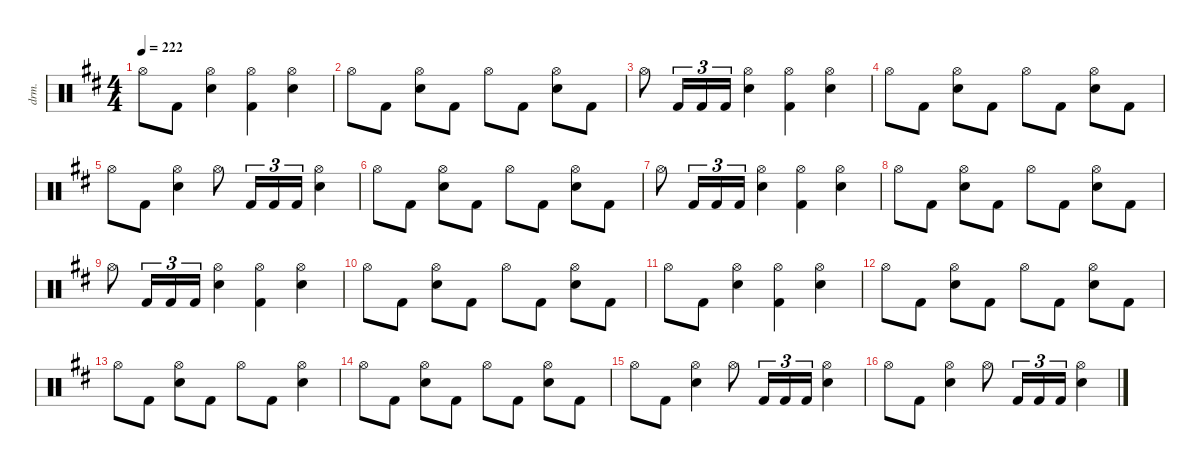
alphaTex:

\defaultSystemsLayout 4
\hideDynamics
\bracketExtendMode nobrackets
\otherSystemsTrackNameOrientation horizontal
\track ("Lars Ulrich" "drm.") {defaultSystemsLayout 4 instrument percussion}
\staff {score}
\articulation defaults
\ts (4 4)
\tempo 222
\clef neutral
\ks bminor "Hi-Hat (open)"{acc forcenatural}.8{dy f} "Kick (hit) 2"{acc forcenatural}.8
("Hi-Hat (open)"{acc forcenatural} "Snare (hit) 2"{acc forcenatural}).4 ("Hi-Hat (open)"{acc forcenatural} "Kick (hit) 2"{acc forcenatural}).4 ("Hi-Hat (open)"{acc forcenatural} "Snare (hit) 2"{acc forcenatural}).4 |
"Hi-Hat (open)"{acc forcenatural}.8 "Kick (hit) 2"{acc forcenatural}.8 ("Hi-Hat (open)"{acc forcenatural} "Snare (hit) 2"{acc forcenatural}).8 "Kick (hit) 2"{acc forcenatural}.8 "Hi-Hat (open)"{acc forcenatural}.8 "Kick (hit) 2"{acc forcenatural}.8 ("Hi-Hat (open)"{acc forcenatural} "Snare (hit) 2"{acc forcenatural}).8 "Kick (hit) 2"{acc forcenatural}.8 |
"Hi-Hat (open)"{acc forcenatural}.8 "Kick (hit) 2"{acc forcenatural}.16{tu (3 2)} "Kick (hit) 2"{acc forcenatural}.16{tu (3 2)} "Kick (hit) 2"{acc forcenatural}.16{tu (3 2)} ("Hi-Hat (open)"{acc forcenatural} "Snare (hit) 2"{acc forcenatural}).4 ("Hi-Hat (open)"{acc forcenatural} "Kick (hit) 2"{acc forcenatural}).4 ("Hi-Hat (open)"{acc forcenatural} "Snare (hit) 2"{acc forcenatural}).4 |
"Hi-Hat (open)"{acc forcenatural}.8 "Kick (hit) 2"{acc forcenatural}.8 ("Hi-Hat (open)"{acc forcenatural} "Snare (hit) 2"{acc forcenatural}).8 "Kick (hit) 2"{acc forcenatural}.8 "Hi-Hat (open)"{acc forcenatural}.8 "Kick (hit) 2"{acc forcenatural}.8 ("Hi-Hat (open)"{acc forcenatural} "Snare (hit) 2"{acc forcenatural}).8 "Kick (hit) 2"{acc forcenatural}.8 |
"Hi-Hat (open)"{acc forcenatural}.8 "Kick (hit) 2"{acc forcenatural}.8 ("Hi-Hat (open)"{acc forcenatural} "Snare (hit) 2"{acc forcenatural}).4 "Hi-Hat (open)"{acc forcenatural}.8 "Kick (hit) 2"{acc forcenatural}.16{tu (3 2)} "Kick (hit) 2"{acc forcenatural}.16{tu (3 2)} "Kick (hit) 2"{acc forcenatural}.16{tu (3 2)} ("Hi-Hat (open)"{acc forcenatural} "Snare (hit) 2"{acc forcenatural}).4 |
"Hi-Hat (open)"{acc forcenatural}.8 "Kick (hit) 2"{acc forcenatural}.8 ("Hi-Hat (open)"{acc forcenatural} "Snare (hit) 2"{acc forcenatural}).8 "Kick (hit) 2"{acc forcenatural}.8 "Hi-Hat (open)"{acc forcenatural}.8 "Kick (hit) 2"{acc forcenatural}.8 ("Hi-Hat (open)"{acc forcenatural} "Snare (hit) 2"{acc forcenatural}).8 "Kick (hit) 2"{acc forcenatural}.8 |
"Hi-Hat (open)"{acc forcenatural}.8 "Kick (hit) 2"{acc forcenatural}.16{tu (3 2)} "Kick (hit) 2"{acc forcenatural}.16{tu (3 2)} "Kick (hit) 2"{acc forcenatural}.16{tu (3 2)} ("Hi-Hat (open)"{acc forcenatural} "Snare (hit) 2"{acc forcenatural}).4 ("Hi-Hat (open)"{acc forcenatural} "Kick (hit) 2"{acc forcenatural}).4 ("Hi-Hat (open)"{acc forcenatural} "Snare (hit) 2"{acc forcenatural}).4 |
"Hi-Hat (open)"{acc forcenatural}.8 "Kick (hit) 2"{acc forcenatural}.8 ("Hi-Hat (open)"{acc forcenatural} "Snare (hit) 2"{acc forcenatural}).8 "Kick (hit) 2"{acc forcenatural}.8 "Hi-Hat (open)"{acc forcenatural}.8 "Kick (hit) 2"{acc forcenatural}.8 ("Hi-Hat (open)"{acc forcenatural} "Snare (hit) 2"{acc forcenatural}).8 "Kick (hit) 2"{acc forcenatural}.8 |
"Hi-Hat (open)"{acc forcenatural}.8 "Kick (hit) 2"{acc forcenatural}.16{tu (3 2)} "Kick (hit) 2"{acc forcenatural}.16{tu (3 2)} "Kick (hit) 2"{acc forcenatural}.16{tu (3 2)} ("Hi-Hat (open)"{acc forcenatural} "Snare (hit) 2"{acc forcenatural}).4 ("Hi-Hat (open)"{acc forcenatural} "Kick (hit) 2"{acc forcenatural}).4 ("Hi-Hat (open)"{acc forcenatural} "Snare (hit) 2"{acc forcenatural}).4 |
"Hi-Hat (open)"{acc forcenatural}.8 "Kick (hit) 2"{acc forcenatural}.8 ("Hi-Hat (open)"{acc forcenatural} "Snare (hit) 2"{acc forcenatural}).8 "Kick (hit) 2"{acc forcenatural}.8 "Hi-Hat (open)"{acc forcenatural}.8 "Kick (hit) 2"{acc forcenatural}.8 ("Hi-Hat (open)"{acc forcenatural} "Snare (hit) 2"{acc forcenatural}).8 "Kick (hit) 2"{acc forcenatural}.8 |
"Hi-Hat (open)"{acc forcenatural}.8 "Kick (hit) 2"{acc forcenatural}.8 ("Hi-Hat (open)"{acc forcenatural} "Snare (hit) 2"{acc forcenatural}).4 ("Hi-Hat (open)"{acc forcenatural} "Kick (hit) 2"{acc forcenatural}).4 ("Hi-Hat (open)"{acc forcenatural} "Snare (hit) 2"{acc forcenatural}).4 |
"Hi-Hat (open)"{acc forcenatural}.8 "Kick (hit) 2"{acc forcenatural}.8 ("Hi-Hat (open)"{acc forcenatural} "Snare (hit) 2"{acc forcenatural}).8 "Kick (hit) 2"{acc forcenatural}.8 "Hi-Hat (open)"{acc forcenatural}.8 "Kick (hit) 2"{acc forcenatural}.8 ("Hi-Hat (open)"{acc forcenatural} "Snare (hit) 2"{acc forcenatural}).8 "Kick (hit) 2"{acc forcenatural}.8 |
"Hi-Hat (open)"{acc forcenatural}.8 "Kick (hit) 2"{acc forcenatural}.8 ("Hi-Hat (open)"{acc forcenatural} "Snare (hit) 2"{acc forcenatural}).8 "Kick (hit) 2"{acc forcenatural}.8 "Hi-Hat (open)"{acc forcenatural}.8 "Kick (hit) 2"{acc forcenatural}.8 ("Hi-Hat (open)"{acc forcenatural} "Snare (hit) 2"{acc forcenatural}).4 |
"Hi-Hat (open)"{acc forcenatural}.8 "Kick (hit) 2"{acc forcenatural}.8 ("Hi-Hat (open)"{acc forcenatural} "Snare (hit) 2"{acc forcenatural}).8 "Kick (hit) 2"{acc forcenatural}.8 "Hi-Hat (open)"{acc forcenatural}.8 "Kick (hit) 2"{acc forcenatural}.8 ("Hi-Hat (open)"{acc forcenatural} "Snare (hit) 2"{acc forcenatural}).8 "Kick (hit) 2"{acc forcenatural}.8 |
"Hi-Hat (open)"{acc forcenatural}.8 "Kick (hit) 2"{acc forcenatural}.8 ("Hi-Hat (open)"{acc forcenatural} "Snare (hit) 2"{acc forcenatural}).4 "Hi-Hat (open)"{acc forcenatural}.8 "Kick (hit) 2"{acc forcenatural}.16{tu (3 2)} "Kick (hit) 2"{acc forcenatural}.16{tu (3 2)} "Kick (hit) 2"{acc forcenatural}.16{tu (3 2)} ("Hi-Hat (open)"{acc forcenatural} "Snare (hit) 2"{acc forcenatural}).4 |
"Hi-Hat (open)"{acc forcenatural}.8 "Kick (hit) 2"{acc forcenatural}.8 ("Hi-Hat (open)"{acc forcenatural} "Snare (hit) 2"{acc forcenatural}).4 "Hi-Hat (open)"{acc forcenatural}.8 "Kick (hit) 2"{acc forcenatural}.16{tu (3 2)} "Kick (hit) 2"{acc forcenatural}.16{tu (3 2)} "Kick (hit) 2"{acc forcenatural}.16{tu (3 2)} ("Hi-Hat (open)"{acc forcenatural} "Snare (hit) 2"{acc forcenatural}).4
